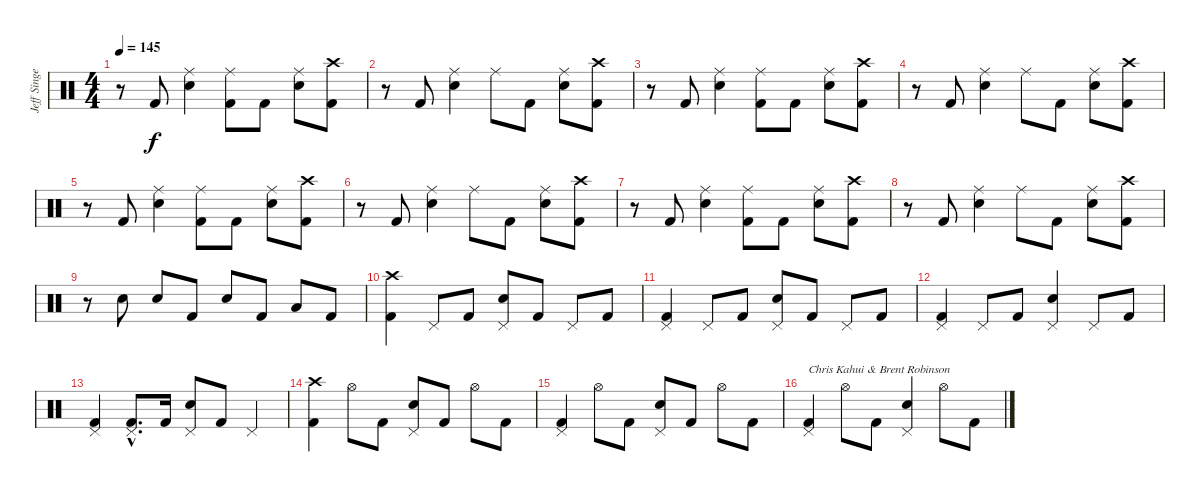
\track ("Jeff Singer" "Jeff Singe") {instrument percussion}
\staff {score}
\articulation defaults
\ts (4 4)
\tempo 145
\clef neutral
\ks c
r.8{dy f} "Kick (hit) 2".8 ("Ride (middle)" "Electric Snare (hit)").4 ("Ride (middle)" "Kick (hit) 2").8 "Kick (hit) 2".8 ("Ride (middle)" "Electric Snare (hit)").8 ("Crash high (hit)" "Kick (hit) 2").8 |
r.8 "Kick (hit) 2".8 ("Ride (middle)" "Electric Snare (hit)").4 "Ride (middle)".8 "Kick (hit) 2".8 ("Ride (middle)" "Electric Snare (hit)").8 ("Crash high (hit)" "Kick (hit) 2").8 |
r.8 "Kick (hit) 2".8 ("Ride (middle)" "Electric Snare (hit)").4 ("Ride (middle)" "Kick (hit) 2").8 "Kick (hit) 2".8 ("Ride (middle)" "Electric Snare (hit)").8 ("Crash high (hit)" "Kick (hit) 2").8 |
r.8 "Kick (hit) 2".8 ("Ride (middle)" "Electric Snare (hit)").4 "Ride (middle)".8 "Kick (hit) 2".8 ("Ride (middle)" "Electric Snare (hit)").8 ("Crash high (hit)" "Kick (hit) 2").8 |
r.8 "Kick (hit) 2".8 ("Ride (middle)" "Electric Snare (hit)").4 ("Ride (middle)" "Kick (hit) 2").8 "Kick (hit) 2".8 ("Ride (middle)" "Electric Snare (hit)").8 ("Crash high (hit)" "Kick (hit) 2").8 |
r.8 "Kick (hit) 2".8 ("Ride (middle)" "Electric Snare (hit)").4 "Ride (middle)".8 "Kick (hit) 2".8 ("Ride (middle)" "Electric Snare (hit)").8 ("Crash high (hit)" "Kick (hit) 2").8 |
r.8 "Kick (hit) 2".8 ("Ride (middle)" "Electric Snare (hit)").4 ("Ride (middle)" "Kick (hit) 2").8 "Kick (hit) 2".8 ("Ride (middle)" "Electric Snare (hit)").8 ("Crash high (hit)" "Kick (hit) 2").8 |
r.8 "Kick (hit) 2".8 ("Ride (middle)" "Electric Snare (hit)").4 "Ride (middle)".8 "Kick (hit) 2".8 ("Ride (middle)" "Electric Snare (hit)").8 ("Crash high (hit)" "Kick (hit) 2").8 |
r.8 "Electric Snare (hit)".8 "Electric Snare (hit)".8 "Kick (hit) 2".8 "Electric Snare (hit)".8 "Kick (hit) 2".8 "Low Tom (hit)".8 "Kick (hit) 2".8 |
("Crash high (hit)" "Kick (hit) 2").4 "Pedal Hi-Hat (hit)".8 "Kick (hit) 2".8 ("Pedal Hi-Hat (hit)" "Electric Snare (hit)").8 "Kick (hit) 2".8 "Pedal Hi-Hat (hit)".8 "Kick (hit) 2".8 |
("Pedal Hi-Hat (hit)" "Kick (hit) 2").4 "Pedal Hi-Hat (hit)".8 "Kick (hit) 2".8 ("Pedal Hi-Hat (hit)" "Electric Snare (hit)").8 "Kick (hit) 2".8 "Pedal Hi-Hat (hit)".8 "Kick (hit) 2".8 |
("Pedal Hi-Hat (hit)" "Kick (hit) 2").4 "Pedal Hi-Hat (hit)".8 "Kick (hit) 2".8 ("Pedal Hi-Hat (hit)" "Electric Snare (hit)").4 "Pedal Hi-Hat (hit)".8 "Kick (hit) 2".8 |
("Pedal Hi-Hat (hit)" "Kick (hit) 2").4 ("Pedal Hi-Hat (hit)"{hac} "Kick (hit) 2"{hac}).8{d} "Kick (hit) 2".16 ("Pedal Hi-Hat (hit)" "Electric Snare (hit)").8 "Kick (hit) 2".8 "Pedal Hi-Hat (hit)".4 |
("Crash high (hit)" "Kick (hit) 2").4 "Hi-Hat (open)".8 "Kick (hit) 2".8 ("Pedal Hi-Hat (hit)" "Electric Snare (hit)").8 "Kick (hit) 2".8 "Hi-Hat (open)".8 "Kick (hit) 2".8 |
("Pedal Hi-Hat (hit)" "Kick (hit) 2").4 "Hi-Hat (open)".8 "Kick (hit) 2".8 ("Pedal Hi-Hat (hit)" "Electric Snare (hit)").8 "Kick (hit) 2".8 "Hi-Hat (open)".8 "Kick (hit) 2".8 |
("Pedal Hi-Hat (hit)" "Kick (hit) 2").4{txt "Chris Kahui & Brent Robinson"} "Hi-Hat (open)".8 "Kick (hit) 2".8 ("Pedal Hi-Hat (hit)" "Electric Snare (hit)").4 "Hi-Hat (open)".8 "Kick (hit) 2".8
